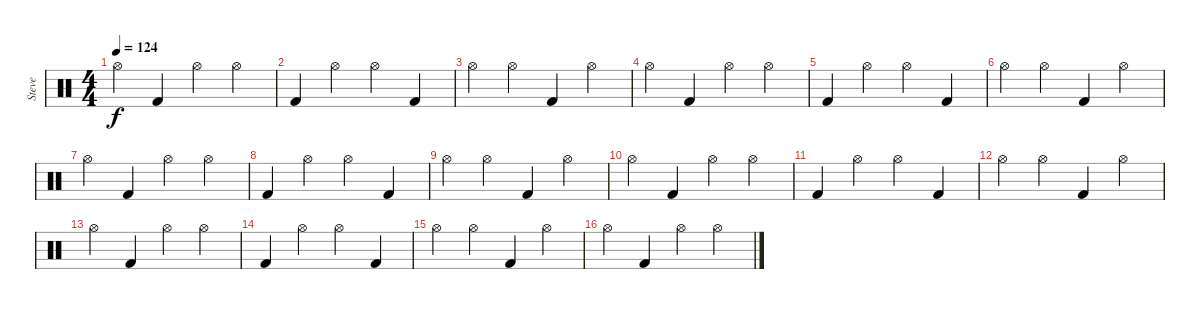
\track ("Steve" "Steve") {instrument percussion}
\staff {score}
\articulation defaults
\ts (4 4)
\tempo 124
\clef neutral
\ks c "Hi-Hat (open)".4{dy f} "Kick (hit) 2".4 "Hi-Hat (open)".4 "Hi-Hat (open)".4
|
"Kick (hit) 2".4 "Hi-Hat (open)".4 "Hi-Hat (open)".4 "Kick (hit) 2".4 |
"Hi-Hat (open)".4 "Hi-Hat (open)".4 "Kick (hit) 2".4 "Hi-Hat (open)".4 |
"Hi-Hat (open)".4 "Kick (hit) 2".4 "Hi-Hat (open)".4 "Hi-Hat (open)".4 |
"Kick (hit) 2".4 "Hi-Hat (open)".4 "Hi-Hat (open)".4 "Kick (hit) 2".4 |
"Hi-Hat (open)".4 "Hi-Hat (open)".4 "Kick (hit) 2".4 "Hi-Hat (open)".4 |
"Hi-Hat (open)".4 "Kick (hit) 2".4 "Hi-Hat (open)".4 "Hi-Hat (open)".4 |
"Kick (hit) 2".4 "Hi-Hat (open)".4 "Hi-Hat (open)".4 "Kick (hit) 2".4 |
"Hi-Hat (open)".4 "Hi-Hat (open)".4 "Kick (hit) 2".4 "Hi-Hat (open)".4 |
"Hi-Hat (open)".4 "Kick (hit) 2".4 "Hi-Hat (open)".4 "Hi-Hat (open)".4 |
"Kick (hit) 2".4 "Hi-Hat (open)".4 "Hi-Hat (open)".4 "Kick (hit) 2".4 |
"Hi-Hat (open)".4 "Hi-Hat (open)".4 "Kick (hit) 2".4 "Hi-Hat (open)".4 |
"Hi-Hat (open)".4 "Kick (hit) 2".4 "Hi-Hat (open)".4 "Hi-Hat (open)".4 |
"Kick (hit) 2".4 "Hi-Hat (open)".4 "Hi-Hat (open)".4 "Kick (hit) 2".4 |
"Hi-Hat (open)".4 "Hi-Hat (open)".4 "Kick (hit) 2".4 "Hi-Hat (open)".4 |
"Hi-Hat (open)".4 "Kick (hit) 2".4 "Hi-Hat (open)".4 "Hi-Hat (open)".4
